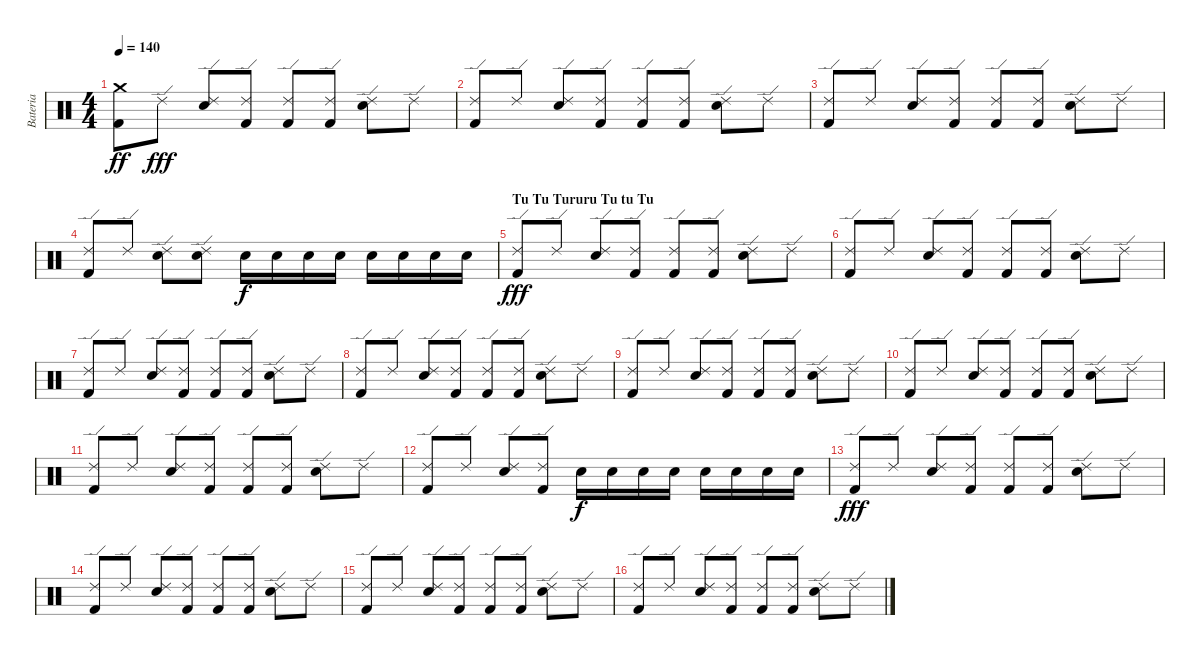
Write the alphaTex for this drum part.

\track ("Bateria" "Bateria") {instrument percussion}
\staff {score}
\articulation defaults
\ts (4 4)
\tempo 140
\clef neutral
\ks c
("Crash medium (hit)" "Kick (hit) 2").8{dy ff} "Ride (edge) 2".8{dy fff} ("Ride (edge) 2" "Snare (hit) 2").8 ("Ride (edge) 2" "Kick (hit) 2").8 ("Ride (edge) 2" "Kick (hit) 2").8 ("Ride (edge) 2" "Kick (hit) 2").8 ("Ride (edge) 2" "Snare (hit) 2").8 "Ride (edge) 2".8 |
("Ride (edge) 2" "Kick (hit) 2").8 "Ride (edge) 2".8 ("Ride (edge) 2" "Snare (hit) 2").8 ("Ride (edge) 2" "Kick (hit) 2").8 ("Ride (edge) 2" "Kick (hit) 2").8 ("Ride (edge) 2" "Kick (hit) 2").8 ("Ride (edge) 2" "Snare (hit) 2").8 "Ride (edge) 2".8 |
("Ride (edge) 2" "Kick (hit) 2").8 "Ride (edge) 2".8 ("Ride (edge) 2" "Snare (hit) 2").8 ("Ride (edge) 2" "Kick (hit) 2").8 ("Ride (edge) 2" "Kick (hit) 2").8 ("Ride (edge) 2" "Kick (hit) 2").8 ("Ride (edge) 2" "Snare (hit) 2").8 "Ride (edge) 2".8 |
("Ride (edge) 2" "Kick (hit) 2").8 "Ride (edge) 2".8 ("Ride (edge) 2" "Snare (hit) 2").8 ("Ride (edge) 2" "Snare (hit) 2").8 "Snare (hit) 2".16{dy f} "Snare (hit) 2".16 "Snare (hit) 2".16 "Snare (hit) 2".16 "Snare (hit) 2".16 "Snare (hit) 2".16 "Snare (hit) 2".16 "Snare (hit) 2".16 |
\section ("" "Tu Tu Tururu Tu tu Tu")
("Ride (edge) 2" "Kick (hit) 2").8{dy fff} "Ride (edge) 2".8 ("Ride (edge) 2" "Snare (hit) 2").8 ("Ride (edge) 2" "Kick (hit) 2").8 ("Ride (edge) 2" "Kick (hit) 2").8 ("Ride (edge) 2" "Kick (hit) 2").8 ("Ride (edge) 2" "Snare (hit) 2").8 "Ride (edge) 2".8 |
("Ride (edge) 2" "Kick (hit) 2").8 "Ride (edge) 2".8 ("Ride (edge) 2" "Snare (hit) 2").8 ("Ride (edge) 2" "Kick (hit) 2").8 ("Ride (edge) 2" "Kick (hit) 2").8 ("Ride (edge) 2" "Kick (hit) 2").8 ("Ride (edge) 2" "Snare (hit) 2").8 "Ride (edge) 2".8 |
("Ride (edge) 2" "Kick (hit) 2").8 "Ride (edge) 2".8 ("Ride (edge) 2" "Snare (hit) 2").8 ("Ride (edge) 2" "Kick (hit) 2").8 ("Ride (edge) 2" "Kick (hit) 2").8 ("Ride (edge) 2" "Kick (hit) 2").8 ("Ride (edge) 2" "Snare (hit) 2").8 "Ride (edge) 2".8 |
("Ride (edge) 2" "Kick (hit) 2").8 "Ride (edge) 2".8 ("Ride (edge) 2" "Snare (hit) 2").8 ("Ride (edge) 2" "Kick (hit) 2").8 ("Ride (edge) 2" "Kick (hit) 2").8 ("Ride (edge) 2" "Kick (hit) 2").8 ("Ride (edge) 2" "Snare (hit) 2").8 "Ride (edge) 2".8 |
("Ride (edge) 2" "Kick (hit) 2").8 "Ride (edge) 2".8 ("Ride (edge) 2" "Snare (hit) 2").8 ("Ride (edge) 2" "Kick (hit) 2").8 ("Ride (edge) 2" "Kick (hit) 2").8 ("Ride (edge) 2" "Kick (hit) 2").8 ("Ride (edge) 2" "Snare (hit) 2").8 "Ride (edge) 2".8 |
("Ride (edge) 2" "Kick (hit) 2").8 "Ride (edge) 2".8 ("Ride (edge) 2" "Snare (hit) 2").8 ("Ride (edge) 2" "Kick (hit) 2").8 ("Ride (edge) 2" "Kick (hit) 2").8 ("Ride (edge) 2" "Kick (hit) 2").8 ("Ride (edge) 2" "Snare (hit) 2").8 "Ride (edge) 2".8 |
("Ride (edge) 2" "Kick (hit) 2").8 "Ride (edge) 2".8 ("Ride (edge) 2" "Snare (hit) 2").8 ("Ride (edge) 2" "Kick (hit) 2").8 ("Ride (edge) 2" "Kick (hit) 2").8 ("Ride (edge) 2" "Kick (hit) 2").8 ("Ride (edge) 2" "Snare (hit) 2").8 "Ride (edge) 2".8 |
("Ride (edge) 2" "Kick (hit) 2").8 "Ride (edge) 2".8 ("Ride (edge) 2" "Snare (hit) 2").8 ("Ride (edge) 2" "Kick (hit) 2").8 "Snare (hit) 2".16{dy f} "Snare (hit) 2".16 "Snare (hit) 2".16 "Snare (hit) 2".16 "Snare (hit) 2".16 "Snare (hit) 2".16 "Snare (hit) 2".16 "Snare (hit) 2".16 |
("Ride (edge) 2" "Kick (hit) 2").8{dy fff} "Ride (edge) 2".8 ("Ride (edge) 2" "Snare (hit) 2").8 ("Ride (edge) 2" "Kick (hit) 2").8 ("Ride (edge) 2" "Kick (hit) 2").8 ("Ride (edge) 2" "Kick (hit) 2").8 ("Ride (edge) 2" "Snare (hit) 2").8 "Ride (edge) 2".8 |
("Ride (edge) 2" "Kick (hit) 2").8 "Ride (edge) 2".8 ("Ride (edge) 2" "Snare (hit) 2").8 ("Ride (edge) 2" "Kick (hit) 2").8 ("Ride (edge) 2" "Kick (hit) 2").8 ("Ride (edge) 2" "Kick (hit) 2").8 ("Ride (edge) 2" "Snare (hit) 2").8 "Ride (edge) 2".8 |
("Ride (edge) 2" "Kick (hit) 2").8 "Ride (edge) 2".8 ("Ride (edge) 2" "Snare (hit) 2").8 ("Ride (edge) 2" "Kick (hit) 2").8 ("Ride (edge) 2" "Kick (hit) 2").8 ("Ride (edge) 2" "Kick (hit) 2").8 ("Ride (edge) 2" "Snare (hit) 2").8 "Ride (edge) 2".8 |
("Ride (edge) 2" "Kick (hit) 2").8 "Ride (edge) 2".8 ("Ride (edge) 2" "Snare (hit) 2").8 ("Ride (edge) 2" "Kick (hit) 2").8 ("Ride (edge) 2" "Kick (hit) 2").8 ("Ride (edge) 2" "Kick (hit) 2").8 ("Ride (edge) 2" "Snare (hit) 2").8 "Ride (edge) 2".8
